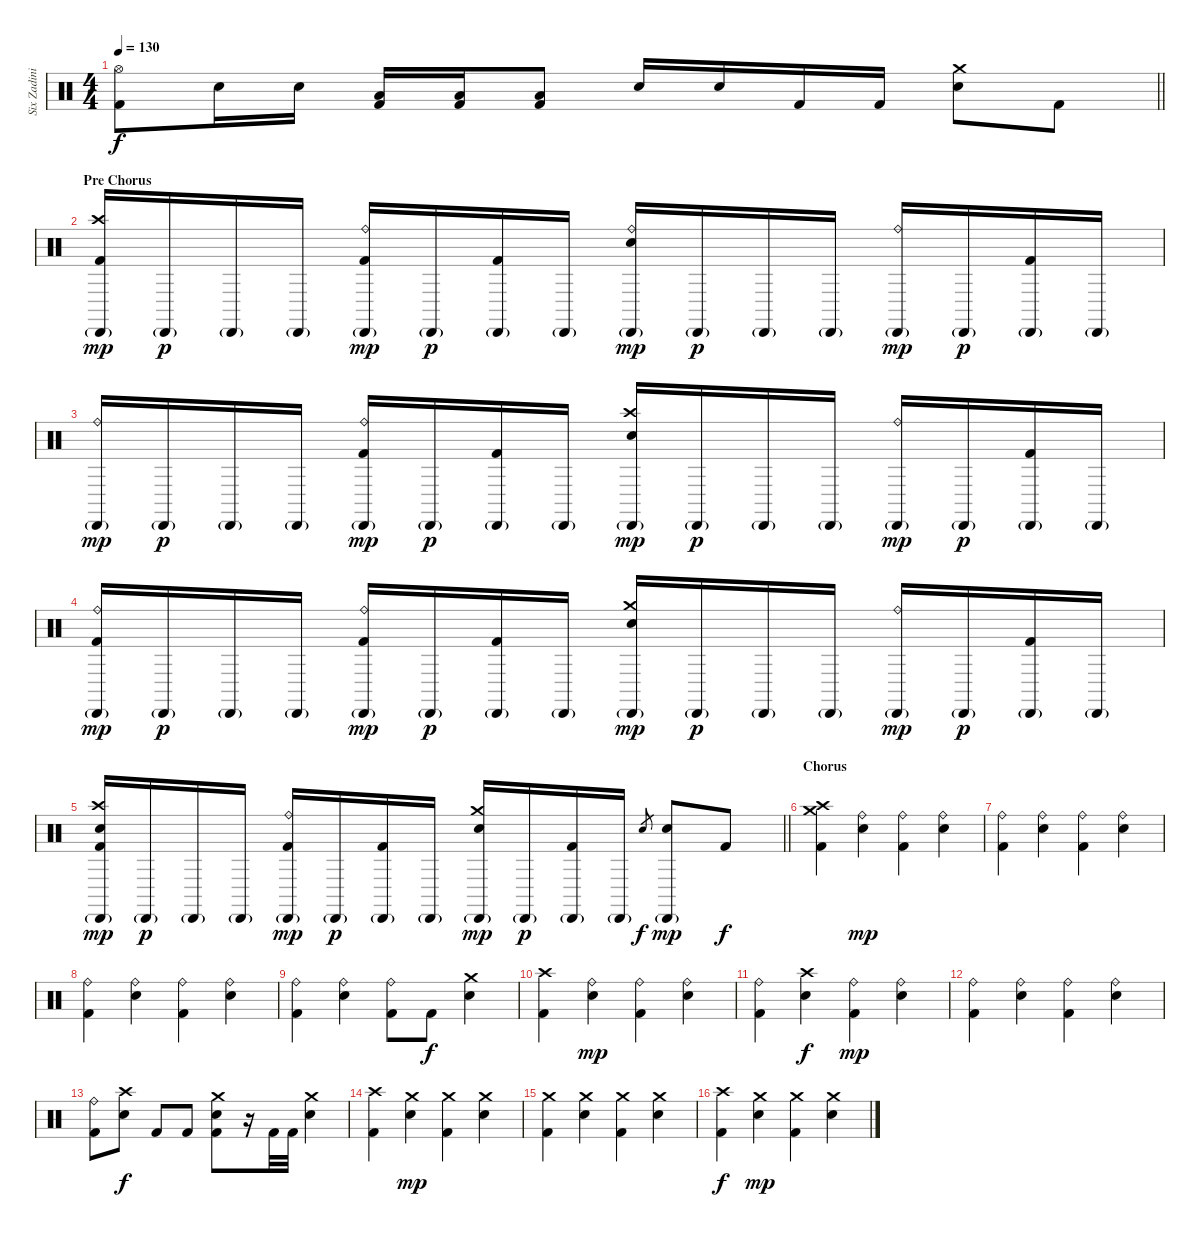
\track ("Six Zadinia" "Six Zadini") {instrument percussion}
\staff {score}
\articulation defaults
\ts (4 4)
\tempo 130
\clef neutral
\barLineRight lightlight
\ks c
("Hi-Hat (open)" "Kick (hit) 2").8{dy f} "Electric Snare (hit)".16 "Electric Snare (hit)".16 ("Low Tom (hit)" "Kick (hit) 2").16 ("Low Tom (hit)" "Kick (hit) 2").16 ("Low Tom (hit)" "Kick (hit) 2").8 "Electric Snare (hit)".16 "Electric Snare (hit)".16 "Kick (hit) 2".16 "Kick (hit) 2".16 ("Crash medium (hit)" "Electric Snare (hit)").8 "Kick (hit) 2".8 |
\section ("" "Pre Chorus")
("Crash high (hit)" "Cabasa (hit)"{g} "Kick (hit) 2").16{dy mp} "Cabasa (hit)"{g}.16{dy p} "Cabasa (hit)"{g}.16 "Cabasa (hit)"{g}.16 ("Ride (bell)" "Cabasa (hit)"{g} "Kick (hit) 2").16{dy mp} "Cabasa (hit)"{g}.16{dy p} ("Cabasa (hit)"{g} "Kick (hit) 2").16 "Cabasa (hit)"{g}.16 ("Ride (bell)" "Electric Snare (hit)" "Cabasa (hit)"{g}).16{dy mp} "Cabasa (hit)"{g}.16{dy p} "Cabasa (hit)"{g}.16 "Cabasa (hit)"{g}.16 ("Ride (bell)" "Cabasa (hit)"{g}).16{dy mp} "Cabasa (hit)"{g}.16{dy p} ("Cabasa (hit)"{g} "Kick (hit) 2").16 "Cabasa (hit)"{g}.16 |
("Ride (bell)" "Cabasa (hit)"{g}).16{dy mp} "Cabasa (hit)"{g}.16{dy p} "Cabasa (hit)"{g}.16 "Cabasa (hit)"{g}.16 ("Ride (bell)" "Cabasa (hit)"{g} "Kick (hit) 2").16{dy mp} "Cabasa (hit)"{g}.16{dy p} ("Cabasa (hit)"{g} "Kick (hit) 2").16 "Cabasa (hit)"{g}.16 ("Crash high (hit)" "Electric Snare (hit)" "Cabasa (hit)"{g}).16{dy mp} "Cabasa (hit)"{g}.16{dy p} "Cabasa (hit)"{g}.16 "Cabasa (hit)"{g}.16 ("Ride (bell)" "Cabasa (hit)"{g}).16{dy mp} "Cabasa (hit)"{g}.16{dy p} ("Cabasa (hit)"{g} "Kick (hit) 2").16 "Cabasa (hit)"{g}.16 |
("Ride (bell)" "Cabasa (hit)"{g} "Kick (hit) 2").16{dy mp} "Cabasa (hit)"{g}.16{dy p} "Cabasa (hit)"{g}.16 "Cabasa (hit)"{g}.16 ("Ride (bell)" "Cabasa (hit)"{g} "Kick (hit) 2").16{dy mp} "Cabasa (hit)"{g}.16{dy p} ("Cabasa (hit)"{g} "Kick (hit) 2").16 "Cabasa (hit)"{g}.16 ("Crash medium (hit)" "Electric Snare (hit)" "Cabasa (hit)"{g}).16{dy mp} "Cabasa (hit)"{g}.16{dy p} "Cabasa (hit)"{g}.16 "Cabasa (hit)"{g}.16 ("Ride (bell)" "Cabasa (hit)"{g}).16{dy mp} "Cabasa (hit)"{g}.16{dy p} ("Cabasa (hit)"{g} "Kick (hit) 2").16 "Cabasa (hit)"{g}.16 |
\barLineRight lightlight
("Crash high (hit)" "Electric Snare (hit)" "Cabasa (hit)"{g} "Kick (hit) 2").16{dy mp} "Cabasa (hit)"{g}.16{dy p} "Cabasa (hit)"{g}.16 "Cabasa (hit)"{g}.16 ("Ride (bell)" "Cabasa (hit)"{g} "Kick (hit) 2").16{dy mp} "Cabasa (hit)"{g}.16{dy p} ("Cabasa (hit)"{g} "Kick (hit) 2").16 "Cabasa (hit)"{g}.16 ("Crash medium (hit)" "Electric Snare (hit)" "Cabasa (hit)"{g}).16{dy mp} "Cabasa (hit)"{g}.16{dy p} ("Cabasa (hit)"{g} "Kick (hit) 2").16 "Cabasa (hit)"{g}.16 "Electric Snare (hit)".8{gr dy f} ("Electric Snare (hit)" "Cabasa (hit)"{g}).8{dy mp} "Kick (hit) 2".8{dy f} |
\section ("" "Chorus")
("Crash high (hit)" "Crash medium (hit)" "Kick (hit) 2").4 ("Ride (bell)" "Electric Snare (hit)").4{dy mp} ("Ride (bell)" "Kick (hit) 2").4 ("Ride (bell)" "Electric Snare (hit)").4 |
("Ride (bell)" "Kick (hit) 2").4 ("Ride (bell)" "Electric Snare (hit)").4 ("Ride (bell)" "Kick (hit) 2").4 ("Ride (bell)" "Electric Snare (hit)").4 |
("Ride (bell)" "Kick (hit) 2").4 ("Ride (bell)" "Electric Snare (hit)").4 ("Ride (bell)" "Kick (hit) 2").4 ("Ride (bell)" "Electric Snare (hit)").4 |
("Ride (bell)" "Kick (hit) 2").4 ("Ride (bell)" "Electric Snare (hit)").4 ("Ride (bell)" "Kick (hit) 2").8 "Kick (hit) 2".8{dy f} ("Crash medium (hit)" "Electric Snare (hit)").4 |
("Crash high (hit)" "Kick (hit) 2").4 ("Ride (bell)" "Electric Snare (hit)").4{dy mp} ("Ride (bell)" "Kick (hit) 2").4 ("Ride (bell)" "Electric Snare (hit)").4 |
("Ride (bell)" "Kick (hit) 2").4 ("Crash high (hit)" "Electric Snare (hit)").4{dy f} ("Ride (bell)" "Kick (hit) 2").4{dy mp} ("Ride (bell)" "Electric Snare (hit)").4 |
("Ride (bell)" "Kick (hit) 2").4 ("Ride (bell)" "Electric Snare (hit)").4 ("Ride (bell)" "Kick (hit) 2").4 ("Ride (bell)" "Electric Snare (hit)").4 |
("Ride (bell)" "Kick (hit) 2").8 ("Crash high (hit)" "Electric Snare (hit)").8{dy f} "Kick (hit) 2".8 "Kick (hit) 2".8 ("Crash medium (hit)" "Electric Snare (hit)" "Kick (hit) 2").8 r.16 "Kick (hit) 2".32 "Kick (hit) 2".32 ("Crash medium (hit)" "Electric Snare (hit)").4 |
("Crash high (hit)" "Kick (hit) 2").4 ("Crash medium (hit)" "Electric Snare (hit)").4{dy mp} ("Crash medium (hit)" "Kick (hit) 2").4 ("Crash medium (hit)" "Electric Snare (hit)").4 |
("Crash medium (hit)" "Kick (hit) 2").4 ("Crash medium (hit)" "Electric Snare (hit)").4 ("Crash medium (hit)" "Kick (hit) 2").4 ("Crash medium (hit)" "Electric Snare (hit)").4 |
("Crash high (hit)" "Kick (hit) 2").4{dy f} ("Crash medium (hit)" "Electric Snare (hit)").4{dy mp} ("Crash medium (hit)" "Kick (hit) 2").4 ("Crash medium (hit)" "Electric Snare (hit)").4
